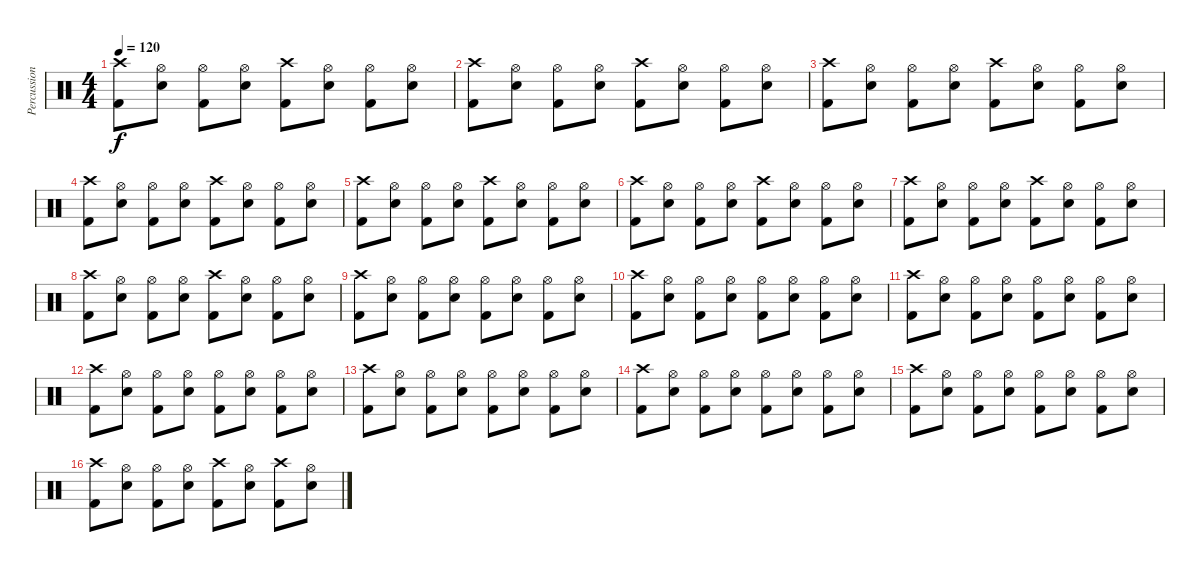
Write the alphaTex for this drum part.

\track ("Percussion" "Percussion") {instrument percussion}
\staff {score}
\articulation defaults
\ts (4 4)
\tempo 120
\clef neutral
\ks c
("Crash high (hit)" "Kick (hit) 2").8{dy f} ("Hi-Hat (open)" "Snare (hit) 2").8 ("Hi-Hat (open)" "Kick (hit) 2").8 ("Hi-Hat (open)" "Snare (hit) 2").8 ("Crash high (hit)" "Kick (hit) 2").8 ("Hi-Hat (open)" "Snare (hit) 2").8 ("Hi-Hat (open)" "Kick (hit) 2").8 ("Hi-Hat (open)" "Snare (hit) 2").8 |
("Crash high (hit)" "Kick (hit) 2").8 ("Hi-Hat (open)" "Snare (hit) 2").8 ("Hi-Hat (open)" "Kick (hit) 2").8 ("Hi-Hat (open)" "Snare (hit) 2").8 ("Crash high (hit)" "Kick (hit) 2").8 ("Hi-Hat (open)" "Snare (hit) 2").8 ("Hi-Hat (open)" "Kick (hit) 2").8 ("Hi-Hat (open)" "Snare (hit) 2").8 |
("Crash high (hit)" "Kick (hit) 2").8 ("Hi-Hat (open)" "Snare (hit) 2").8 ("Hi-Hat (open)" "Kick (hit) 2").8 ("Hi-Hat (open)" "Snare (hit) 2").8 ("Crash high (hit)" "Kick (hit) 2").8 ("Hi-Hat (open)" "Snare (hit) 2").8 ("Hi-Hat (open)" "Kick (hit) 2").8 ("Hi-Hat (open)" "Snare (hit) 2").8 |
("Crash high (hit)" "Kick (hit) 2").8 ("Hi-Hat (open)" "Snare (hit) 2").8 ("Hi-Hat (open)" "Kick (hit) 2").8 ("Hi-Hat (open)" "Snare (hit) 2").8 ("Crash high (hit)" "Kick (hit) 2").8 ("Hi-Hat (open)" "Snare (hit) 2").8 ("Hi-Hat (open)" "Kick (hit) 2").8 ("Hi-Hat (open)" "Snare (hit) 2").8 |
("Crash high (hit)" "Kick (hit) 2").8 ("Hi-Hat (open)" "Snare (hit) 2").8 ("Hi-Hat (open)" "Kick (hit) 2").8 ("Hi-Hat (open)" "Snare (hit) 2").8 ("Crash high (hit)" "Kick (hit) 2").8 ("Hi-Hat (open)" "Snare (hit) 2").8 ("Hi-Hat (open)" "Kick (hit) 2").8 ("Hi-Hat (open)" "Snare (hit) 2").8 |
("Crash high (hit)" "Kick (hit) 2").8 ("Hi-Hat (open)" "Snare (hit) 2").8 ("Hi-Hat (open)" "Kick (hit) 2").8 ("Hi-Hat (open)" "Snare (hit) 2").8 ("Crash high (hit)" "Kick (hit) 2").8 ("Hi-Hat (open)" "Snare (hit) 2").8 ("Hi-Hat (open)" "Kick (hit) 2").8 ("Hi-Hat (open)" "Snare (hit) 2").8 |
("Crash high (hit)" "Kick (hit) 2").8 ("Hi-Hat (open)" "Snare (hit) 2").8 ("Hi-Hat (open)" "Kick (hit) 2").8 ("Hi-Hat (open)" "Snare (hit) 2").8 ("Crash high (hit)" "Kick (hit) 2").8 ("Hi-Hat (open)" "Snare (hit) 2").8 ("Hi-Hat (open)" "Kick (hit) 2").8 ("Hi-Hat (open)" "Snare (hit) 2").8 |
("Crash high (hit)" "Kick (hit) 2").8 ("Hi-Hat (open)" "Snare (hit) 2").8 ("Hi-Hat (open)" "Kick (hit) 2").8 ("Hi-Hat (open)" "Snare (hit) 2").8 ("Crash high (hit)" "Kick (hit) 2").8 ("Hi-Hat (open)" "Snare (hit) 2").8 ("Hi-Hat (open)" "Kick (hit) 2").8 ("Hi-Hat (open)" "Snare (hit) 2").8 |
("Crash high (hit)" "Kick (hit) 2").8 ("Hi-Hat (open)" "Snare (hit) 2").8 ("Hi-Hat (open)" "Kick (hit) 2").8 ("Hi-Hat (open)" "Snare (hit) 2").8 ("Hi-Hat (open)" "Kick (hit) 2").8 ("Hi-Hat (open)" "Snare (hit) 2").8 ("Hi-Hat (open)" "Kick (hit) 2").8 ("Hi-Hat (open)" "Snare (hit) 2").8 |
("Crash high (hit)" "Kick (hit) 2").8 ("Hi-Hat (open)" "Snare (hit) 2").8 ("Hi-Hat (open)" "Kick (hit) 2").8 ("Hi-Hat (open)" "Snare (hit) 2").8 ("Hi-Hat (open)" "Kick (hit) 2").8 ("Hi-Hat (open)" "Snare (hit) 2").8 ("Hi-Hat (open)" "Kick (hit) 2").8 ("Hi-Hat (open)" "Snare (hit) 2").8 |
("Crash high (hit)" "Kick (hit) 2").8 ("Hi-Hat (open)" "Snare (hit) 2").8 ("Hi-Hat (open)" "Kick (hit) 2").8 ("Hi-Hat (open)" "Snare (hit) 2").8 ("Hi-Hat (open)" "Kick (hit) 2").8 ("Hi-Hat (open)" "Snare (hit) 2").8 ("Hi-Hat (open)" "Kick (hit) 2").8 ("Hi-Hat (open)" "Snare (hit) 2").8 |
("Crash high (hit)" "Kick (hit) 2").8 ("Hi-Hat (open)" "Snare (hit) 2").8 ("Hi-Hat (open)" "Kick (hit) 2").8 ("Hi-Hat (open)" "Snare (hit) 2").8 ("Hi-Hat (open)" "Kick (hit) 2").8 ("Hi-Hat (open)" "Snare (hit) 2").8 ("Hi-Hat (open)" "Kick (hit) 2").8 ("Hi-Hat (open)" "Snare (hit) 2").8 |
("Crash high (hit)" "Kick (hit) 2").8 ("Hi-Hat (open)" "Snare (hit) 2").8 ("Hi-Hat (open)" "Kick (hit) 2").8 ("Hi-Hat (open)" "Snare (hit) 2").8 ("Hi-Hat (open)" "Kick (hit) 2").8 ("Hi-Hat (open)" "Snare (hit) 2").8 ("Hi-Hat (open)" "Kick (hit) 2").8 ("Hi-Hat (open)" "Snare (hit) 2").8 |
("Crash high (hit)" "Kick (hit) 2").8 ("Hi-Hat (open)" "Snare (hit) 2").8 ("Hi-Hat (open)" "Kick (hit) 2").8 ("Hi-Hat (open)" "Snare (hit) 2").8 ("Hi-Hat (open)" "Kick (hit) 2").8 ("Hi-Hat (open)" "Snare (hit) 2").8 ("Hi-Hat (open)" "Kick (hit) 2").8 ("Hi-Hat (open)" "Snare (hit) 2").8 |
("Crash high (hit)" "Kick (hit) 2").8 ("Hi-Hat (open)" "Snare (hit) 2").8 ("Hi-Hat (open)" "Kick (hit) 2").8 ("Hi-Hat (open)" "Snare (hit) 2").8 ("Hi-Hat (open)" "Kick (hit) 2").8 ("Hi-Hat (open)" "Snare (hit) 2").8 ("Hi-Hat (open)" "Kick (hit) 2").8 ("Hi-Hat (open)" "Snare (hit) 2").8 |
("Crash high (hit)" "Kick (hit) 2").8 ("Hi-Hat (open)" "Snare (hit) 2").8 ("Hi-Hat (open)" "Kick (hit) 2").8 ("Hi-Hat (open)" "Snare (hit) 2").8 ("Crash high (hit)" "Kick (hit) 2").8 ("Hi-Hat (open)" "Snare (hit) 2").8 ("Crash high (hit)" "Kick (hit) 2").8 ("Hi-Hat (open)" "Snare (hit) 2").8
